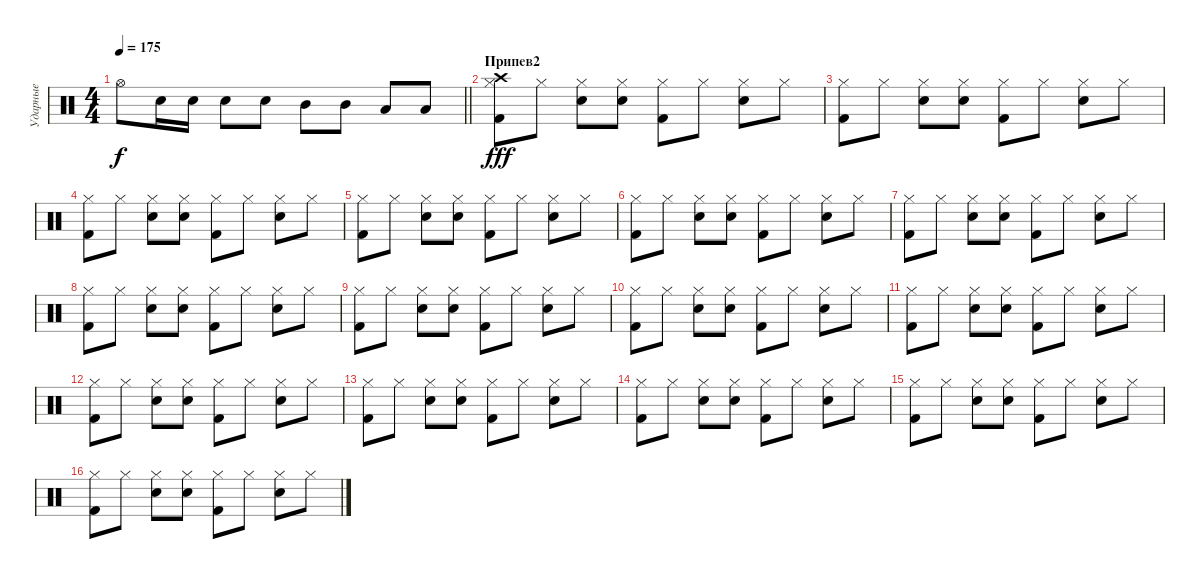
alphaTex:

\track ("Ударные" "Ударные") {instrument percussion}
\staff {score}
\articulation defaults
\ts (4 4)
\tempo 175
\clef neutral
\barLineRight lightlight
\ks c "Hi-Hat (open)".8{dy f} "Snare (hit) 2".16 "Snare (hit) 2".16 "Snare (hit) 2".8 "Snare (hit) 2".8 "Mid Tom (hit)".8 "Mid Tom (hit)".8 "Low Tom (hit)".8 "Low Tom (hit)".8
|
\section ("" "Припев2")
("Crash high (hit)" "Hi-Hat (closed)" "Kick (hit) 2").8{dy fff} "Hi-Hat (closed)".8 ("Hi-Hat (closed)" "Snare (hit) 2").8 ("Hi-Hat (closed)" "Snare (hit) 2").8 ("Hi-Hat (closed)" "Kick (hit) 2").8 "Hi-Hat (closed)".8 ("Hi-Hat (closed)" "Snare (hit) 2").8 "Hi-Hat (closed)".8 |
("Hi-Hat (closed)" "Kick (hit) 2").8 "Hi-Hat (closed)".8 ("Hi-Hat (closed)" "Snare (hit) 2").8 ("Hi-Hat (closed)" "Snare (hit) 2").8 ("Hi-Hat (closed)" "Kick (hit) 2").8 "Hi-Hat (closed)".8 ("Hi-Hat (closed)" "Snare (hit) 2").8 "Hi-Hat (closed)".8 |
("Hi-Hat (closed)" "Kick (hit) 2").8 "Hi-Hat (closed)".8 ("Hi-Hat (closed)" "Snare (hit) 2").8 ("Hi-Hat (closed)" "Snare (hit) 2").8 ("Hi-Hat (closed)" "Kick (hit) 2").8 "Hi-Hat (closed)".8 ("Hi-Hat (closed)" "Snare (hit) 2").8 "Hi-Hat (closed)".8 |
("Hi-Hat (closed)" "Kick (hit) 2").8 "Hi-Hat (closed)".8 ("Hi-Hat (closed)" "Snare (hit) 2").8 ("Hi-Hat (closed)" "Snare (hit) 2").8 ("Hi-Hat (closed)" "Kick (hit) 2").8 "Hi-Hat (closed)".8 ("Hi-Hat (closed)" "Snare (hit) 2").8 "Hi-Hat (closed)".8 |
("Hi-Hat (closed)" "Kick (hit) 2").8 "Hi-Hat (closed)".8 ("Hi-Hat (closed)" "Snare (hit) 2").8 ("Hi-Hat (closed)" "Snare (hit) 2").8 ("Hi-Hat (closed)" "Kick (hit) 2").8 "Hi-Hat (closed)".8 ("Hi-Hat (closed)" "Snare (hit) 2").8 "Hi-Hat (closed)".8 |
("Hi-Hat (closed)" "Kick (hit) 2").8 "Hi-Hat (closed)".8 ("Hi-Hat (closed)" "Snare (hit) 2").8 ("Hi-Hat (closed)" "Snare (hit) 2").8 ("Hi-Hat (closed)" "Kick (hit) 2").8 "Hi-Hat (closed)".8 ("Hi-Hat (closed)" "Snare (hit) 2").8 "Hi-Hat (closed)".8 |
("Hi-Hat (closed)" "Kick (hit) 2").8 "Hi-Hat (closed)".8 ("Hi-Hat (closed)" "Snare (hit) 2").8 ("Hi-Hat (closed)" "Snare (hit) 2").8 ("Hi-Hat (closed)" "Kick (hit) 2").8 "Hi-Hat (closed)".8 ("Hi-Hat (closed)" "Snare (hit) 2").8 "Hi-Hat (closed)".8 |
("Hi-Hat (closed)" "Kick (hit) 2").8 "Hi-Hat (closed)".8 ("Hi-Hat (closed)" "Snare (hit) 2").8 ("Hi-Hat (closed)" "Snare (hit) 2").8 ("Hi-Hat (closed)" "Kick (hit) 2").8 "Hi-Hat (closed)".8 ("Hi-Hat (closed)" "Snare (hit) 2").8 "Hi-Hat (closed)".8 |
("Hi-Hat (closed)" "Kick (hit) 2").8 "Hi-Hat (closed)".8 ("Hi-Hat (closed)" "Snare (hit) 2").8 ("Hi-Hat (closed)" "Snare (hit) 2").8 ("Hi-Hat (closed)" "Kick (hit) 2").8 "Hi-Hat (closed)".8 ("Hi-Hat (closed)" "Snare (hit) 2").8 "Hi-Hat (closed)".8 |
("Hi-Hat (closed)" "Kick (hit) 2").8 "Hi-Hat (closed)".8 ("Hi-Hat (closed)" "Snare (hit) 2").8 ("Hi-Hat (closed)" "Snare (hit) 2").8 ("Hi-Hat (closed)" "Kick (hit) 2").8 "Hi-Hat (closed)".8 ("Hi-Hat (closed)" "Snare (hit) 2").8 "Hi-Hat (closed)".8 |
("Hi-Hat (closed)" "Kick (hit) 2").8 "Hi-Hat (closed)".8 ("Hi-Hat (closed)" "Snare (hit) 2").8 ("Hi-Hat (closed)" "Snare (hit) 2").8 ("Hi-Hat (closed)" "Kick (hit) 2").8 "Hi-Hat (closed)".8 ("Hi-Hat (closed)" "Snare (hit) 2").8 "Hi-Hat (closed)".8 |
("Hi-Hat (closed)" "Kick (hit) 2").8 "Hi-Hat (closed)".8 ("Hi-Hat (closed)" "Snare (hit) 2").8 ("Hi-Hat (closed)" "Snare (hit) 2").8 ("Hi-Hat (closed)" "Kick (hit) 2").8 "Hi-Hat (closed)".8 ("Hi-Hat (closed)" "Snare (hit) 2").8 "Hi-Hat (closed)".8 |
("Hi-Hat (closed)" "Kick (hit) 2").8 "Hi-Hat (closed)".8 ("Hi-Hat (closed)" "Snare (hit) 2").8 ("Hi-Hat (closed)" "Snare (hit) 2").8 ("Hi-Hat (closed)" "Kick (hit) 2").8 "Hi-Hat (closed)".8 ("Hi-Hat (closed)" "Snare (hit) 2").8 "Hi-Hat (closed)".8 |
("Hi-Hat (closed)" "Kick (hit) 2").8 "Hi-Hat (closed)".8 ("Hi-Hat (closed)" "Snare (hit) 2").8 ("Hi-Hat (closed)" "Snare (hit) 2").8 ("Hi-Hat (closed)" "Kick (hit) 2").8 "Hi-Hat (closed)".8 ("Hi-Hat (closed)" "Snare (hit) 2").8 "Hi-Hat (closed)".8 |
("Hi-Hat (closed)" "Kick (hit) 2").8 "Hi-Hat (closed)".8 ("Hi-Hat (closed)" "Snare (hit) 2").8 ("Hi-Hat (closed)" "Snare (hit) 2").8 ("Hi-Hat (closed)" "Kick (hit) 2").8 "Hi-Hat (closed)".8 ("Hi-Hat (closed)" "Snare (hit) 2").8 "Hi-Hat (closed)".8
